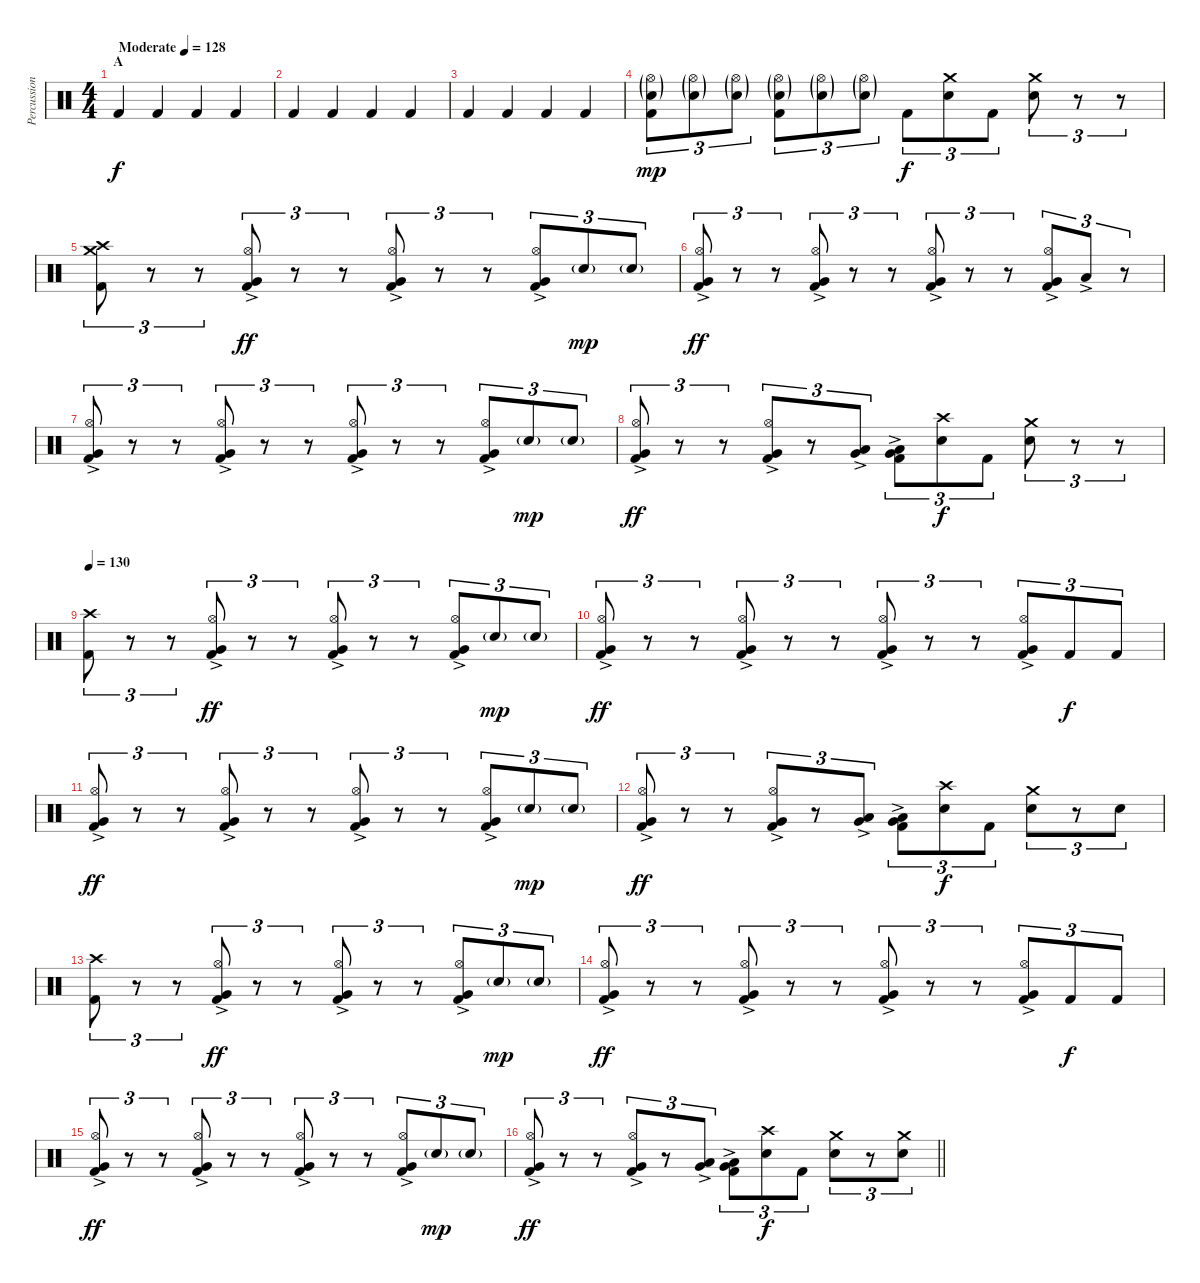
\track ("Percussion" "Percussion") {instrument percussion}
\staff {score}
\articulation defaults
\ts (4 4)
\section ("" "A")
\tempo (128 "Moderate")
\clef neutral
\ks c "Kick (hit) 2".4{dy f} "Kick (hit) 2".4 "Kick (hit) 2".4 "Kick (hit) 2".4
|
"Kick (hit) 2".4 "Kick (hit) 2".4 "Kick (hit) 2".4 "Kick (hit) 2".4 |
"Kick (hit) 2".4 "Kick (hit) 2".4 "Kick (hit) 2".4 "Kick (hit) 2".4 |
("Hi-Hat (open)"{g} "Electric Snare (hit)"{g} "Kick (hit) 2").8{tu (3 2) dy mp} ("Hi-Hat (open)"{g} "Electric Snare (hit)"{g}).8{tu (3 2)} ("Hi-Hat (open)"{g} "Electric Snare (hit)"{g}).8{tu (3 2)} ("Hi-Hat (open)"{g} "Electric Snare (hit)"{g} "Kick (hit) 2").8{tu (3 2)} ("Hi-Hat (open)"{g} "Electric Snare (hit)"{g}).8{tu (3 2)} ("Hi-Hat (open)"{g} "Electric Snare (hit)"{g}).8{tu (3 2)} "Kick (hit) 2".8{tu (3 2) dy f} ("Crash medium (hit)" "Electric Snare (hit)").8{tu (3 2)} "Kick (hit) 2".8{tu (3 2)} ("Crash medium (hit)" "Electric Snare (hit)").8{tu (3 2)} r.8{tu (3 2)} r.8{tu (3 2)} |
("Crash high (hit)" "Crash medium (hit)" "Kick (hit) 2").8{tu (3 2)} r.8{tu (3 2)} r.8{tu (3 2)} ("Hi-Hat (open)" "Very Low Tom (hit)"{ac} "Kick (hit) 2").8{tu (3 2) dy ff} r.8{tu (3 2)} r.8{tu (3 2)} ("Hi-Hat (open)" "Very Low Tom (hit)"{ac} "Kick (hit) 2").8{tu (3 2)} r.8{tu (3 2)} r.8{tu (3 2)} ("Hi-Hat (open)" "Very Low Tom (hit)"{ac} "Kick (hit) 2").8{tu (3 2)} "Electric Snare (hit)"{g}.8{tu (3 2) dy mp} "Electric Snare (hit)"{g}.8{tu (3 2)} |
("Hi-Hat (open)" "Very Low Tom (hit)"{ac} "Kick (hit) 2").8{tu (3 2) dy ff} r.8{tu (3 2)} r.8{tu (3 2)} ("Hi-Hat (open)" "Very Low Tom (hit)"{ac} "Kick (hit) 2").8{tu (3 2)} r.8{tu (3 2)} r.8{tu (3 2)} ("Hi-Hat (open)" "Very Low Tom (hit)"{ac} "Kick (hit) 2").8{tu (3 2)} r.8{tu (3 2)} r.8{tu (3 2)} ("Hi-Hat (open)" "Very Low Tom (hit)"{ac} "Kick (hit) 2").8{tu (3 2)} "Low Tom (hit)"{ac}.8{tu (3 2)} r.8{tu (3 2)} |
("Hi-Hat (open)" "Very Low Tom (hit)"{ac} "Kick (hit) 2").8{tu (3 2)} r.8{tu (3 2)} r.8{tu (3 2)} ("Hi-Hat (open)" "Very Low Tom (hit)"{ac} "Kick (hit) 2").8{tu (3 2)} r.8{tu (3 2)} r.8{tu (3 2)} ("Hi-Hat (open)" "Very Low Tom (hit)"{ac} "Kick (hit) 2").8{tu (3 2)} r.8{tu (3 2)} r.8{tu (3 2)} ("Hi-Hat (open)" "Very Low Tom (hit)"{ac} "Kick (hit) 2").8{tu (3 2)} "Electric Snare (hit)"{g}.8{tu (3 2) dy mp} "Electric Snare (hit)"{g}.8{tu (3 2)} |
("Hi-Hat (open)" "Very Low Tom (hit)"{ac} "Kick (hit) 2").8{tu (3 2) dy ff} r.8{tu (3 2)} r.8{tu (3 2)} ("Hi-Hat (open)" "Very Low Tom (hit)"{ac} "Kick (hit) 2").8{tu (3 2)} r.8{tu (3 2)} ("Low Tom (hit)"{ac} "Very Low Tom (hit)"{ac}).8{tu (3 2)} ("Very Low Tom (hit)"{ac} "Low Floor Tom (hit)"{ac} "Kick (hit) 2").8{tu (3 2)} ("Crash high (hit)" "Electric Snare (hit)").8{tu (3 2) dy f} "Kick (hit) 2".8{tu (3 2)} ("Crash medium (hit)" "Electric Snare (hit)").8{tu (3 2)} r.8{tu (3 2)} r.8{tu (3 2)} |
\tempo 130
("Crash high (hit)" "Kick (hit) 2").8{tu (3 2)} r.8{tu (3 2)} r.8{tu (3 2)} ("Hi-Hat (open)" "Very Low Tom (hit)"{ac} "Kick (hit) 2").8{tu (3 2) dy ff} r.8{tu (3 2)} r.8{tu (3 2)} ("Hi-Hat (open)" "Very Low Tom (hit)"{ac} "Kick (hit) 2").8{tu (3 2)} r.8{tu (3 2)} r.8{tu (3 2)} ("Hi-Hat (open)" "Very Low Tom (hit)"{ac} "Kick (hit) 2").8{tu (3 2)} "Electric Snare (hit)"{g}.8{tu (3 2) dy mp} "Electric Snare (hit)"{g}.8{tu (3 2)} |
("Hi-Hat (open)" "Very Low Tom (hit)"{ac} "Kick (hit) 2").8{tu (3 2) dy ff} r.8{tu (3 2)} r.8{tu (3 2)} ("Hi-Hat (open)" "Very Low Tom (hit)"{ac} "Kick (hit) 2").8{tu (3 2)} r.8{tu (3 2)} r.8{tu (3 2)} ("Hi-Hat (open)" "Very Low Tom (hit)"{ac} "Kick (hit) 2").8{tu (3 2)} r.8{tu (3 2)} r.8{tu (3 2)} ("Hi-Hat (open)" "Very Low Tom (hit)"{ac} "Kick (hit) 2").8{tu (3 2)} "Kick (hit) 2".8{tu (3 2) dy f} "Kick (hit) 2".8{tu (3 2)} |
("Hi-Hat (open)" "Very Low Tom (hit)"{ac} "Kick (hit) 2").8{tu (3 2) dy ff} r.8{tu (3 2)} r.8{tu (3 2)} ("Hi-Hat (open)" "Very Low Tom (hit)"{ac} "Kick (hit) 2").8{tu (3 2)} r.8{tu (3 2)} r.8{tu (3 2)} ("Hi-Hat (open)" "Very Low Tom (hit)"{ac} "Kick (hit) 2").8{tu (3 2)} r.8{tu (3 2)} r.8{tu (3 2)} ("Hi-Hat (open)" "Very Low Tom (hit)"{ac} "Kick (hit) 2").8{tu (3 2)} "Electric Snare (hit)"{g}.8{tu (3 2) dy mp} "Electric Snare (hit)"{g}.8{tu (3 2)} |
("Hi-Hat (open)" "Very Low Tom (hit)"{ac} "Kick (hit) 2").8{tu (3 2) dy ff} r.8{tu (3 2)} r.8{tu (3 2)} ("Hi-Hat (open)" "Very Low Tom (hit)"{ac} "Kick (hit) 2").8{tu (3 2)} r.8{tu (3 2)} ("Low Tom (hit)"{ac} "Very Low Tom (hit)"{ac}).8{tu (3 2)} ("Very Low Tom (hit)"{ac} "Low Floor Tom (hit)"{ac} "Kick (hit) 2").8{tu (3 2)} ("Crash high (hit)" "Electric Snare (hit)").8{tu (3 2) dy f} "Kick (hit) 2".8{tu (3 2)} ("Crash medium (hit)" "Electric Snare (hit)").8{tu (3 2)} r.8{tu (3 2)} "Electric Snare (hit)".8{tu (3 2)} |
("Crash high (hit)" "Kick (hit) 2").8{tu (3 2)} r.8{tu (3 2)} r.8{tu (3 2)} ("Hi-Hat (open)" "Very Low Tom (hit)"{ac} "Kick (hit) 2").8{tu (3 2) dy ff} r.8{tu (3 2)} r.8{tu (3 2)} ("Hi-Hat (open)" "Very Low Tom (hit)"{ac} "Kick (hit) 2").8{tu (3 2)} r.8{tu (3 2)} r.8{tu (3 2)} ("Hi-Hat (open)" "Very Low Tom (hit)"{ac} "Kick (hit) 2").8{tu (3 2)} "Electric Snare (hit)"{g}.8{tu (3 2) dy mp} "Electric Snare (hit)"{g}.8{tu (3 2)} |
("Hi-Hat (open)" "Very Low Tom (hit)"{ac} "Kick (hit) 2").8{tu (3 2) dy ff} r.8{tu (3 2)} r.8{tu (3 2)} ("Hi-Hat (open)" "Very Low Tom (hit)"{ac} "Kick (hit) 2").8{tu (3 2)} r.8{tu (3 2)} r.8{tu (3 2)} ("Hi-Hat (open)" "Very Low Tom (hit)"{ac} "Kick (hit) 2").8{tu (3 2)} r.8{tu (3 2)} r.8{tu (3 2)} ("Hi-Hat (open)" "Very Low Tom (hit)"{ac} "Kick (hit) 2").8{tu (3 2)} "Kick (hit) 2".8{tu (3 2) dy f} "Kick (hit) 2".8{tu (3 2)} |
("Hi-Hat (open)" "Very Low Tom (hit)"{ac} "Kick (hit) 2").8{tu (3 2) dy ff} r.8{tu (3 2)} r.8{tu (3 2)} ("Hi-Hat (open)" "Very Low Tom (hit)"{ac} "Kick (hit) 2").8{tu (3 2)} r.8{tu (3 2)} r.8{tu (3 2)} ("Hi-Hat (open)" "Very Low Tom (hit)"{ac} "Kick (hit) 2").8{tu (3 2)} r.8{tu (3 2)} r.8{tu (3 2)} ("Hi-Hat (open)" "Very Low Tom (hit)"{ac} "Kick (hit) 2").8{tu (3 2)} "Electric Snare (hit)"{g}.8{tu (3 2) dy mp} "Electric Snare (hit)"{g}.8{tu (3 2)} |
\barLineRight lightlight
("Hi-Hat (open)" "Very Low Tom (hit)"{ac} "Kick (hit) 2").8{tu (3 2) dy ff} r.8{tu (3 2)} r.8{tu (3 2)} ("Hi-Hat (open)" "Very Low Tom (hit)"{ac} "Kick (hit) 2").8{tu (3 2)} r.8{tu (3 2)} ("Low Tom (hit)"{ac} "Very Low Tom (hit)"{ac}).8{tu (3 2)} ("Very Low Tom (hit)"{ac} "Low Floor Tom (hit)"{ac} "Kick (hit) 2").8{tu (3 2)} ("Crash high (hit)" "Electric Snare (hit)").8{tu (3 2) dy f} "Kick (hit) 2".8{tu (3 2)} ("Crash medium (hit)" "Electric Snare (hit)").8{tu (3 2)} r.8{tu (3 2)} ("Crash medium (hit)" "Electric Snare (hit)").8{tu (3 2)}
